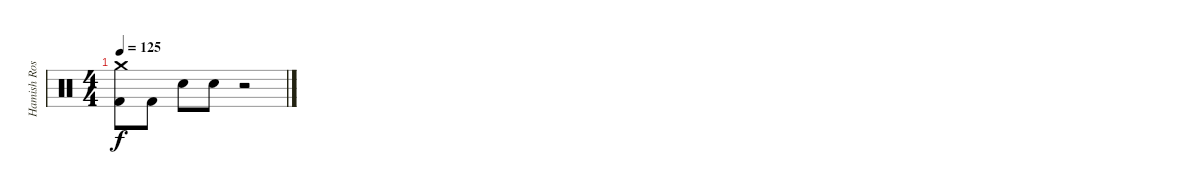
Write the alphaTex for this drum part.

\track ("Hamish Rosser" "Hamish Ros") {instrument percussion}
\staff {score}
\articulation defaults
\ts (4 4)
\tempo 125
\clef neutral
\ks c
("Crash medium (hit)" "Kick (hit) 2").8{dy f} "Kick (hit) 2".8 "Electric Snare (hit)".8 "Electric Snare (hit)".8 r.2
